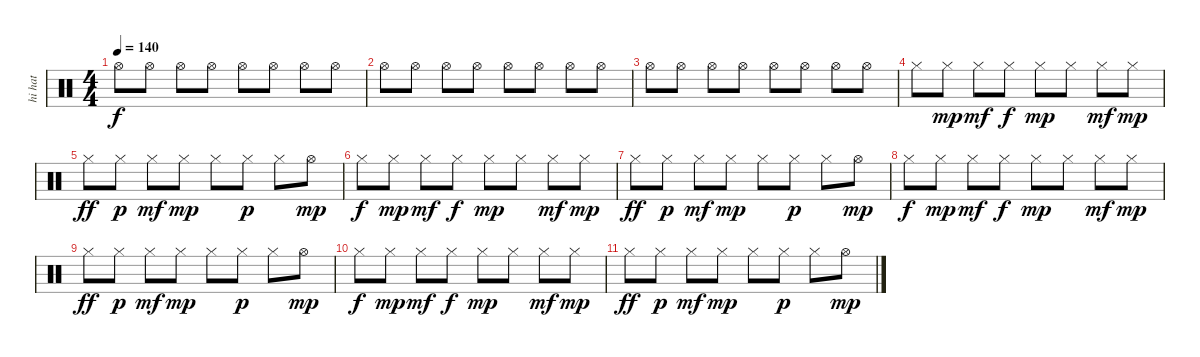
\track ("hi hat" "hi hat") {instrument percussion}
\staff {score}
\articulation defaults
\ts (4 4)
\tempo 140
\clef neutral
\ks c "Hi-Hat (open)".8{dy f} "Hi-Hat (open)".8 "Hi-Hat (open)".8 "Hi-Hat (open)".8 "Hi-Hat (open)".8 "Hi-Hat (open)".8 "Hi-Hat (open)".8 "Hi-Hat (open)".8
|
"Hi-Hat (open)".8 "Hi-Hat (open)".8 "Hi-Hat (open)".8 "Hi-Hat (open)".8 "Hi-Hat (open)".8 "Hi-Hat (open)".8 "Hi-Hat (open)".8 "Hi-Hat (open)".8 |
"Hi-Hat (open)".8 "Hi-Hat (open)".8 "Hi-Hat (open)".8 "Hi-Hat (open)".8 "Hi-Hat (open)".8 "Hi-Hat (open)".8 "Hi-Hat (open)".8 "Hi-Hat (open)".8 |
"Hi-Hat (closed)".8 "Hi-Hat (closed)".8{dy mp} "Hi-Hat (closed)".8{dy mf} "Hi-Hat (closed)".8{dy f} "Hi-Hat (closed)".8{dy mp} "Hi-Hat (closed)".8 "Hi-Hat (closed)".8{dy mf} "Hi-Hat (closed)".8{dy mp} |
"Hi-Hat (closed)".8{dy ff} "Hi-Hat (closed)".8{dy p} "Hi-Hat (closed)".8{dy mf} "Hi-Hat (closed)".8{dy mp} "Hi-Hat (closed)".8 "Hi-Hat (closed)".8{dy p} "Hi-Hat (closed)".8 "Hi-Hat (open)".8{dy mp} |
"Hi-Hat (closed)".8{dy f} "Hi-Hat (closed)".8{dy mp} "Hi-Hat (closed)".8{dy mf} "Hi-Hat (closed)".8{dy f} "Hi-Hat (closed)".8{dy mp} "Hi-Hat (closed)".8 "Hi-Hat (closed)".8{dy mf} "Hi-Hat (closed)".8{dy mp} |
"Hi-Hat (closed)".8{dy ff} "Hi-Hat (closed)".8{dy p} "Hi-Hat (closed)".8{dy mf} "Hi-Hat (closed)".8{dy mp} "Hi-Hat (closed)".8 "Hi-Hat (closed)".8{dy p} "Hi-Hat (closed)".8 "Hi-Hat (open)".8{dy mp} |
"Hi-Hat (closed)".8{dy f} "Hi-Hat (closed)".8{dy mp} "Hi-Hat (closed)".8{dy mf} "Hi-Hat (closed)".8{dy f} "Hi-Hat (closed)".8{dy mp} "Hi-Hat (closed)".8 "Hi-Hat (closed)".8{dy mf} "Hi-Hat (closed)".8{dy mp} |
"Hi-Hat (closed)".8{dy ff} "Hi-Hat (closed)".8{dy p} "Hi-Hat (closed)".8{dy mf} "Hi-Hat (closed)".8{dy mp} "Hi-Hat (closed)".8 "Hi-Hat (closed)".8{dy p} "Hi-Hat (closed)".8 "Hi-Hat (open)".8{dy mp} |
"Hi-Hat (closed)".8{dy f} "Hi-Hat (closed)".8{dy mp} "Hi-Hat (closed)".8{dy mf} "Hi-Hat (closed)".8{dy f} "Hi-Hat (closed)".8{dy mp} "Hi-Hat (closed)".8 "Hi-Hat (closed)".8{dy mf} "Hi-Hat (closed)".8{dy mp} |
"Hi-Hat (closed)".8{dy ff} "Hi-Hat (closed)".8{dy p} "Hi-Hat (closed)".8{dy mf} "Hi-Hat (closed)".8{dy mp} "Hi-Hat (closed)".8 "Hi-Hat (closed)".8{dy p} "Hi-Hat (closed)".8 "Hi-Hat (open)".8{dy mp}
